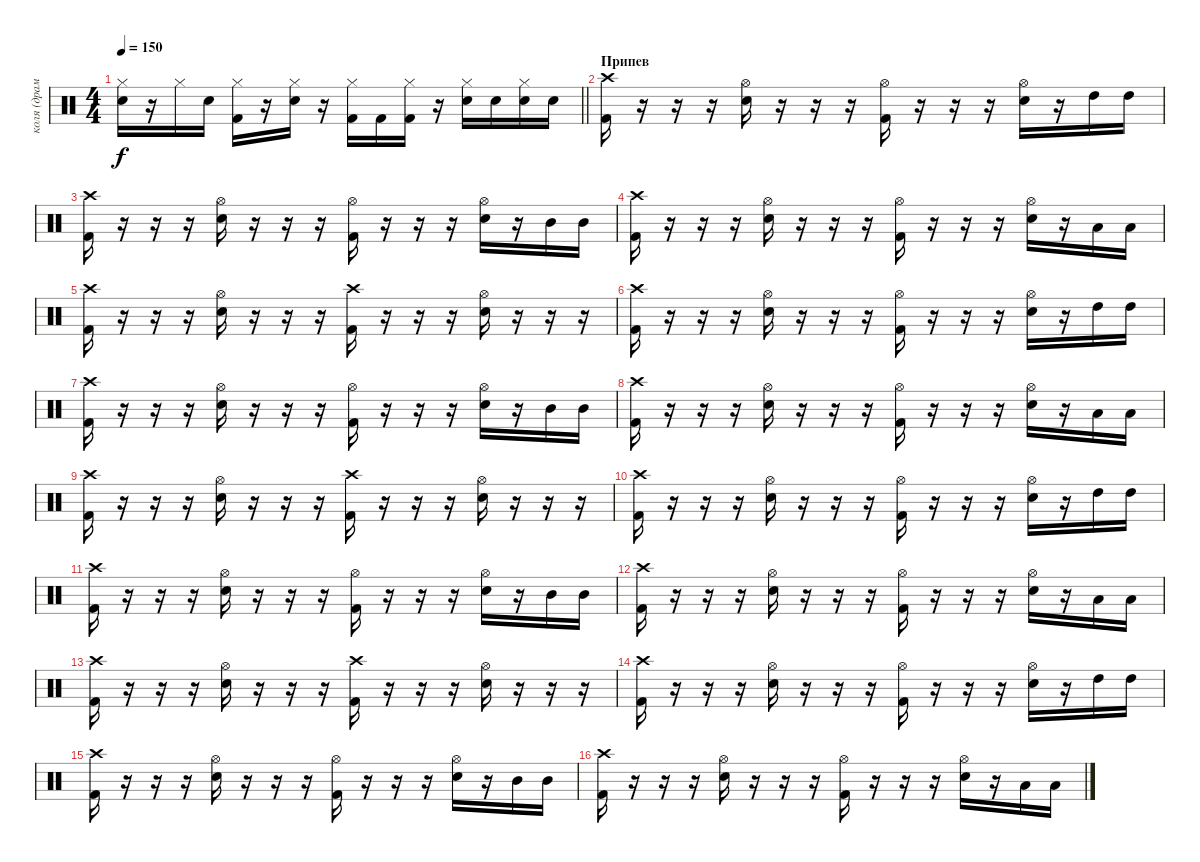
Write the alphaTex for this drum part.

\track ("коля (драммы)" "коля (драм") {instrument percussion}
\staff {score}
\articulation defaults
\ts (4 4)
\tempo 150
\clef neutral
\barLineRight lightlight
\ks c
("Snare (hit) 2" "Hi-Hat (closed)").16{dy f} r.16 "Hi-Hat (closed)".16 "Snare (hit) 2".16 ("Kick (hit) 2" "Hi-Hat (closed)").16 r.16 ("Snare (hit) 2" "Hi-Hat (closed)").16 r.16 ("Kick (hit) 2" "Hi-Hat (closed)").16 "Kick (hit) 2".16 ("Kick (hit) 2" "Hi-Hat (closed)").16 r.16 ("Snare (hit) 2" "Hi-Hat (closed)").16 "Snare (hit) 2".16 ("Snare (hit) 2" "Hi-Hat (closed)").16 "Snare (hit) 2".16 |
\section ("" "Припев")
("Kick (hit) 2" "Crash high (hit)").16 r.16 r.16 r.16 ("Snare (hit) 2" "Hi-Hat (open)").16 r.16 r.16 r.16 ("Kick (hit) 2" "Hi-Hat (open)").16 r.16 r.16 r.16 ("Snare (hit) 2" "Hi-Hat (open)").16 r.16 "High Tom (hit)".16 "High Tom (hit)".16 |
("Kick (hit) 2" "Crash high (hit)").16 r.16 r.16 r.16 ("Snare (hit) 2" "Hi-Hat (open)").16 r.16 r.16 r.16 ("Kick (hit) 2" "Hi-Hat (open)").16 r.16 r.16 r.16 ("Snare (hit) 2" "Hi-Hat (open)").16 r.16 "Mid Tom (hit)".16 "Mid Tom (hit)".16 |
("Kick (hit) 2" "Crash high (hit)").16 r.16 r.16 r.16 ("Snare (hit) 2" "Hi-Hat (open)").16 r.16 r.16 r.16 ("Kick (hit) 2" "Hi-Hat (open)").16 r.16 r.16 r.16 ("Snare (hit) 2" "Hi-Hat (open)").16 r.16 "Low Tom (hit)".16 "Low Tom (hit)".16 |
("Kick (hit) 2" "Crash high (hit)").16 r.16 r.16 r.16 ("Snare (hit) 2" "Hi-Hat (open)").16 r.16 r.16 r.16 ("Kick (hit) 2" "Crash high (hit)").16 r.16 r.16 r.16 ("Snare (hit) 2" "Hi-Hat (open)").16 r.16 r.16 r.16 |
("Kick (hit) 2" "Crash high (hit)").16 r.16 r.16 r.16 ("Snare (hit) 2" "Hi-Hat (open)").16 r.16 r.16 r.16 ("Kick (hit) 2" "Hi-Hat (open)").16 r.16 r.16 r.16 ("Snare (hit) 2" "Hi-Hat (open)").16 r.16 "High Tom (hit)".16 "High Tom (hit)".16 |
("Kick (hit) 2" "Crash high (hit)").16 r.16 r.16 r.16 ("Snare (hit) 2" "Hi-Hat (open)").16 r.16 r.16 r.16 ("Kick (hit) 2" "Hi-Hat (open)").16 r.16 r.16 r.16 ("Snare (hit) 2" "Hi-Hat (open)").16 r.16 "Mid Tom (hit)".16 "Mid Tom (hit)".16 |
("Kick (hit) 2" "Crash high (hit)").16 r.16 r.16 r.16 ("Snare (hit) 2" "Hi-Hat (open)").16 r.16 r.16 r.16 ("Kick (hit) 2" "Hi-Hat (open)").16 r.16 r.16 r.16 ("Snare (hit) 2" "Hi-Hat (open)").16 r.16 "Low Tom (hit)".16 "Low Tom (hit)".16 |
("Kick (hit) 2" "Crash high (hit)").16 r.16 r.16 r.16 ("Snare (hit) 2" "Hi-Hat (open)").16 r.16 r.16 r.16 ("Kick (hit) 2" "Crash high (hit)").16 r.16 r.16 r.16 ("Snare (hit) 2" "Hi-Hat (open)").16 r.16 r.16 r.16 |
("Kick (hit) 2" "Crash high (hit)").16 r.16 r.16 r.16 ("Snare (hit) 2" "Hi-Hat (open)").16 r.16 r.16 r.16 ("Kick (hit) 2" "Hi-Hat (open)").16 r.16 r.16 r.16 ("Snare (hit) 2" "Hi-Hat (open)").16 r.16 "High Tom (hit)".16 "High Tom (hit)".16 |
("Kick (hit) 2" "Crash high (hit)").16 r.16 r.16 r.16 ("Snare (hit) 2" "Hi-Hat (open)").16 r.16 r.16 r.16 ("Kick (hit) 2" "Hi-Hat (open)").16 r.16 r.16 r.16 ("Snare (hit) 2" "Hi-Hat (open)").16 r.16 "Mid Tom (hit)".16 "Mid Tom (hit)".16 |
("Kick (hit) 2" "Crash high (hit)").16 r.16 r.16 r.16 ("Snare (hit) 2" "Hi-Hat (open)").16 r.16 r.16 r.16 ("Kick (hit) 2" "Hi-Hat (open)").16 r.16 r.16 r.16 ("Snare (hit) 2" "Hi-Hat (open)").16 r.16 "Low Tom (hit)".16 "Low Tom (hit)".16 |
("Kick (hit) 2" "Crash high (hit)").16 r.16 r.16 r.16 ("Snare (hit) 2" "Hi-Hat (open)").16 r.16 r.16 r.16 ("Kick (hit) 2" "Crash high (hit)").16 r.16 r.16 r.16 ("Snare (hit) 2" "Hi-Hat (open)").16 r.16 r.16 r.16 |
("Kick (hit) 2" "Crash high (hit)").16 r.16 r.16 r.16 ("Snare (hit) 2" "Hi-Hat (open)").16 r.16 r.16 r.16 ("Kick (hit) 2" "Hi-Hat (open)").16 r.16 r.16 r.16 ("Snare (hit) 2" "Hi-Hat (open)").16 r.16 "High Tom (hit)".16 "High Tom (hit)".16 |
("Kick (hit) 2" "Crash high (hit)").16 r.16 r.16 r.16 ("Snare (hit) 2" "Hi-Hat (open)").16 r.16 r.16 r.16 ("Kick (hit) 2" "Hi-Hat (open)").16 r.16 r.16 r.16 ("Snare (hit) 2" "Hi-Hat (open)").16 r.16 "Mid Tom (hit)".16 "Mid Tom (hit)".16 |
("Kick (hit) 2" "Crash high (hit)").16 r.16 r.16 r.16 ("Snare (hit) 2" "Hi-Hat (open)").16 r.16 r.16 r.16 ("Kick (hit) 2" "Hi-Hat (open)").16 r.16 r.16 r.16 ("Snare (hit) 2" "Hi-Hat (open)").16 r.16 "Low Tom (hit)".16 "Low Tom (hit)".16
